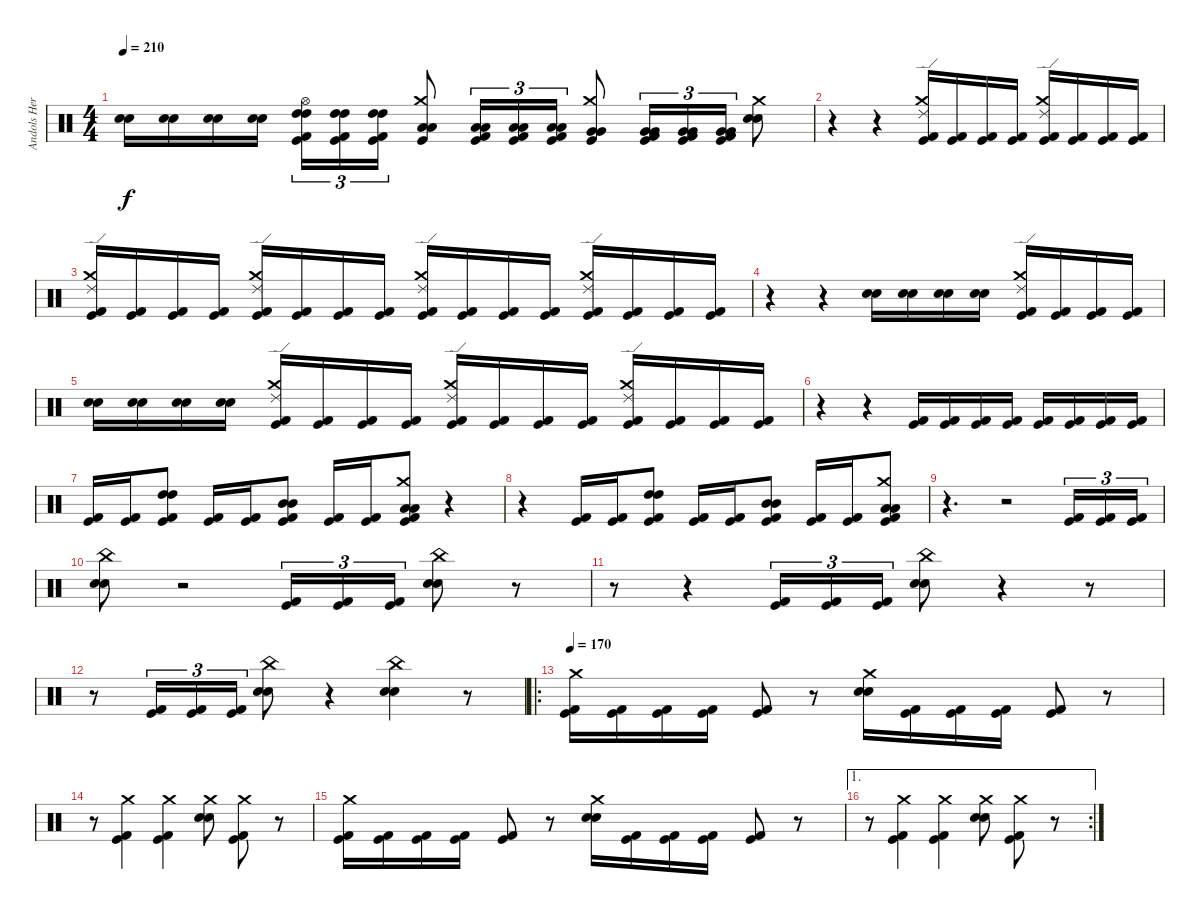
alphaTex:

\track ("Andols Herrick" "Andols Her") {instrument percussion}
\staff {score}
\articulation defaults
\ts (4 4)
\tempo 210
\clef neutral
\ks c
("Snare (hit) 2" "Electric Snare (hit)").16{dy f} ("Snare (hit) 2" "Electric Snare (hit)").16 ("Snare (hit) 2" "Electric Snare (hit)").16 ("Snare (hit) 2" "Electric Snare (hit)").16 ("Hi-Hat (open)" "High Tom (hit)" "High Tom (hit)" "Kick (hit) 2" "Kick (hit)").16{tu (3 2)} ("High Tom (hit)" "High Tom (hit)" "Kick (hit) 2" "Kick (hit)").16{tu (3 2)} ("High Tom (hit)" "High Tom (hit)" "Kick (hit) 2" "Kick (hit)").16{tu (3 2)} ("Crash medium (hit)" "Low Tom (hit)" "Low Tom (hit)" "Kick (hit)").8 ("Low Tom (hit)" "Low Tom (hit)" "Kick (hit) 2" "Kick (hit)").16{tu (3 2)} ("Low Tom (hit)" "Low Tom (hit)" "Kick (hit) 2" "Kick (hit)").16{tu (3 2)} ("Low Tom (hit)" "Low Tom (hit)" "Kick (hit) 2" "Kick (hit)").16{tu (3 2)} ("Crash medium (hit)" "Very Low Tom (hit)" "Very Low Tom (hit)" "Kick (hit)").8 ("Very Low Tom (hit)" "Very Low Tom (hit)" "Kick (hit) 2" "Kick (hit)").16{tu (3 2)} ("Very Low Tom (hit)" "Very Low Tom (hit)" "Kick (hit) 2" "Kick (hit)").16{tu (3 2)} ("Very Low Tom (hit)" "Very Low Tom (hit)" "Kick (hit) 2" "Kick (hit)").16{tu (3 2)} ("Crash medium (hit)" "Snare (hit) 2" "Electric Snare (hit)").8 |
r.4 r.4 ("Crash medium (hit)" "Ride (edge) 2" "Kick (hit) 2" "Kick (hit)").16 ("Kick (hit) 2" "Kick (hit)").16 ("Kick (hit) 2" "Kick (hit)").16 ("Kick (hit) 2" "Kick (hit)").16 ("Crash medium (hit)" "Ride (edge) 2" "Kick (hit) 2" "Kick (hit)").16 ("Kick (hit) 2" "Kick (hit)").16 ("Kick (hit) 2" "Kick (hit)").16 ("Kick (hit) 2" "Kick (hit)").16 |
("Crash medium (hit)" "Ride (edge) 2" "Kick (hit) 2" "Kick (hit)").16 ("Kick (hit) 2" "Kick (hit)").16 ("Kick (hit) 2" "Kick (hit)").16 ("Kick (hit) 2" "Kick (hit)").16 ("Crash medium (hit)" "Ride (edge) 2" "Kick (hit) 2" "Kick (hit)").16 ("Kick (hit) 2" "Kick (hit)").16 ("Kick (hit) 2" "Kick (hit)").16 ("Kick (hit) 2" "Kick (hit)").16 ("Crash medium (hit)" "Ride (edge) 2" "Kick (hit) 2" "Kick (hit)").16 ("Kick (hit) 2" "Kick (hit)").16 ("Kick (hit) 2" "Kick (hit)").16 ("Kick (hit) 2" "Kick (hit)").16 ("Crash medium (hit)" "Ride (edge) 2" "Kick (hit) 2" "Kick (hit)").16 ("Kick (hit) 2" "Kick (hit)").16 ("Kick (hit) 2" "Kick (hit)").16 ("Kick (hit) 2" "Kick (hit)").16 |
r.4 r.4 ("Electric Snare (hit)" "Snare (hit) 2").16 ("Electric Snare (hit)" "Snare (hit) 2").16 ("Electric Snare (hit)" "Snare (hit) 2").16 ("Electric Snare (hit)" "Snare (hit) 2").16 ("Crash medium (hit)" "Ride (edge) 2" "Kick (hit) 2" "Kick (hit)").16 ("Kick (hit) 2" "Kick (hit)").16 ("Kick (hit) 2" "Kick (hit)").16 ("Kick (hit) 2" "Kick (hit)").16 |
("Electric Snare (hit)" "Snare (hit) 2").16 ("Electric Snare (hit)" "Snare (hit) 2").16 ("Electric Snare (hit)" "Snare (hit) 2").16 ("Electric Snare (hit)" "Snare (hit) 2").16 ("Crash medium (hit)" "Ride (edge) 2" "Kick (hit) 2" "Kick (hit)").16 ("Kick (hit) 2" "Kick (hit)").16 ("Kick (hit) 2" "Kick (hit)").16 ("Kick (hit) 2" "Kick (hit)").16 ("Crash medium (hit)" "Ride (edge) 2" "Kick (hit) 2" "Kick (hit)").16 ("Kick (hit) 2" "Kick (hit)").16 ("Kick (hit) 2" "Kick (hit)").16 ("Kick (hit) 2" "Kick (hit)").16 ("Crash medium (hit)" "Ride (edge) 2" "Kick (hit) 2" "Kick (hit)").16 ("Kick (hit) 2" "Kick (hit)").16 ("Kick (hit) 2" "Kick (hit)").16 ("Kick (hit) 2" "Kick (hit)").16 |
r.4 r.4 ("Kick (hit) 2" "Kick (hit)").16 ("Kick (hit) 2" "Kick (hit)").16 ("Kick (hit) 2" "Kick (hit)").16 ("Kick (hit) 2" "Kick (hit)").16 ("Kick (hit) 2" "Kick (hit)").16 ("Kick (hit) 2" "Kick (hit)").16 ("Kick (hit) 2" "Kick (hit)").16 ("Kick (hit) 2" "Kick (hit)").16 |
("Kick (hit) 2" "Kick (hit)").16 ("Kick (hit) 2" "Kick (hit)").16 ("High Tom (hit)" "High Tom (hit)" "Kick (hit) 2" "Kick (hit)").8 ("Kick (hit) 2" "Kick (hit)").16 ("Kick (hit) 2" "Kick (hit)").16 ("Mid Tom (hit)" "Mid Tom (hit)" "Kick (hit) 2" "Kick (hit)").8 ("Kick (hit) 2" "Kick (hit)").16 ("Kick (hit) 2" "Kick (hit)").16 ("Crash medium (hit)" "Low Tom (hit)" "Low Tom (hit)" "Kick (hit) 2" "Kick (hit)").8 r.4 |
r.4 ("Kick (hit) 2" "Kick (hit)").16 ("Kick (hit) 2" "Kick (hit)").16 ("High Tom (hit)" "High Tom (hit)" "Kick (hit) 2" "Kick (hit)").8 ("Kick (hit) 2" "Kick (hit)").16 ("Kick (hit) 2" "Kick (hit)").16 ("Mid Tom (hit)" "Mid Tom (hit)" "Kick (hit) 2" "Kick (hit)").8 ("Kick (hit) 2" "Kick (hit)").16 ("Kick (hit) 2" "Kick (hit)").16 ("Crash medium (hit)" "Low Tom (hit)" "Low Tom (hit)" "Kick (hit) 2" "Kick (hit)").8 |
r.4{d} r.2 ("Kick (hit) 2" "Kick (hit)").16{tu (3 2)} ("Kick (hit) 2" "Kick (hit)").16{tu (3 2)} ("Kick (hit) 2" "Kick (hit)").16{tu (3 2)} |
("China (hit)" "Snare (hit) 2" "Electric Snare (hit)").8 r.2 ("Kick (hit) 2" "Kick (hit)").16{tu (3 2)} ("Kick (hit) 2" "Kick (hit)").16{tu (3 2)} ("Kick (hit) 2" "Kick (hit)").16{tu (3 2)} ("China (hit)" "Snare (hit) 2" "Electric Snare (hit)").8 r.8 |
r.8 r.4 ("Kick (hit) 2" "Kick (hit)").16{tu (3 2)} ("Kick (hit) 2" "Kick (hit)").16{tu (3 2)} ("Kick (hit) 2" "Kick (hit)").16{tu (3 2)} ("China (hit)" "Snare (hit) 2" "Electric Snare (hit)").8 r.4 r.8 |
r.8 ("Kick (hit) 2" "Kick (hit)").16{tu (3 2)} ("Kick (hit) 2" "Kick (hit)").16{tu (3 2)} ("Kick (hit) 2" "Kick (hit)").16{tu (3 2)} ("China (hit)" "Snare (hit) 2" "Electric Snare (hit)").8 r.4 ("China (hit)" "Snare (hit) 2" "Electric Snare (hit)").4 r.8 |
\ro
\tempo 170
("Crash medium (hit)" "Kick (hit) 2" "Kick (hit)").16 ("Kick (hit) 2" "Kick (hit)").16 ("Kick (hit) 2" "Kick (hit)").16 ("Kick (hit) 2" "Kick (hit)").16 ("Kick (hit) 2" "Kick (hit)").8 r.8 ("Crash medium (hit)" "Electric Snare (hit)" "Snare (hit) 2").16 ("Kick (hit) 2" "Kick (hit)").16 ("Kick (hit) 2" "Kick (hit)").16 ("Kick (hit) 2" "Kick (hit)").16 ("Kick (hit) 2" "Kick (hit)").8 r.8 |
r.8 ("Crash medium (hit)" "Kick (hit) 2" "Kick (hit)").4 ("Crash medium (hit)" "Kick (hit) 2" "Kick (hit)").4 ("Crash medium (hit)" "Electric Snare (hit)" "Snare (hit) 2").8 ("Crash medium (hit)" "Kick (hit) 2" "Kick (hit)").8 r.8 |
("Crash medium (hit)" "Kick (hit) 2" "Kick (hit)").16 ("Kick (hit) 2" "Kick (hit)").16 ("Kick (hit) 2" "Kick (hit)").16 ("Kick (hit) 2" "Kick (hit)").16 ("Kick (hit) 2" "Kick (hit)").8 r.8 ("Crash medium (hit)" "Electric Snare (hit)" "Snare (hit) 2").16 ("Kick (hit) 2" "Kick (hit)").16 ("Kick (hit) 2" "Kick (hit)").16 ("Kick (hit) 2" "Kick (hit)").16 ("Kick (hit) 2" "Kick (hit)").8 r.8 |
\ae 1
\rc 2
r.8 ("Crash medium (hit)" "Kick (hit) 2" "Kick (hit)").4 ("Crash medium (hit)" "Kick (hit) 2" "Kick (hit)").4 ("Crash medium (hit)" "Electric Snare (hit)" "Snare (hit) 2").8 ("Crash medium (hit)" "Kick (hit) 2" "Kick (hit)").8 r.8
